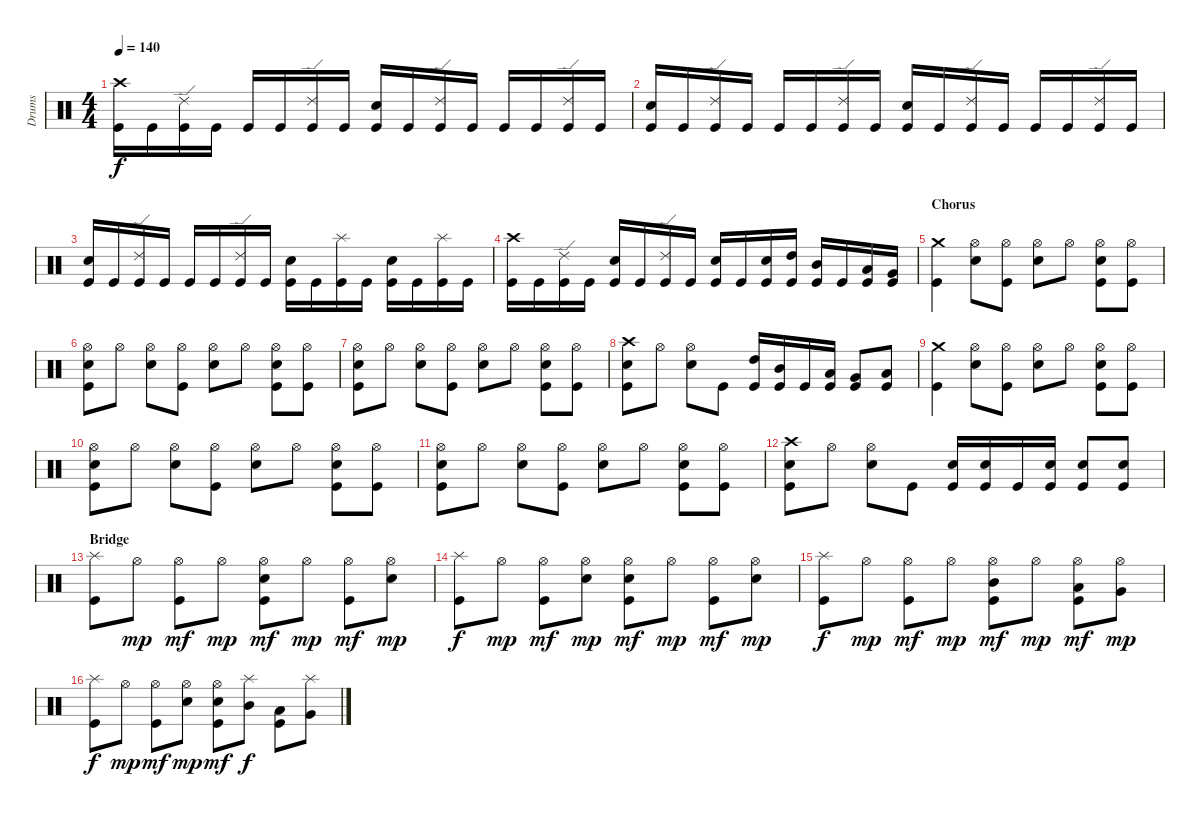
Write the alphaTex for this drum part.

\track ("Drums" "Drums") {instrument percussion}
\staff {score}
\articulation defaults
\ts (4 4)
\tempo 140
\clef neutral
\ks c
("Crash high (hit)" "Kick (hit)").16{dy f} "Kick (hit)".16 ("Ride (edge) 2" "Kick (hit)").16 "Kick (hit)".16 "Kick (hit)".16 "Kick (hit)".16 ("Ride (edge) 2" "Kick (hit)").16 "Kick (hit)".16 ("Snare (hit) 2" "Kick (hit)").16 "Kick (hit)".16 ("Ride (edge) 2" "Kick (hit)").16 "Kick (hit)".16 "Kick (hit)".16 "Kick (hit)".16 ("Ride (edge) 2" "Kick (hit)").16 "Kick (hit)".16 |
("Snare (hit) 2" "Kick (hit)").16 "Kick (hit)".16 ("Ride (edge) 2" "Kick (hit)").16 "Kick (hit)".16 "Kick (hit)".16 "Kick (hit)".16 ("Ride (edge) 2" "Kick (hit)").16 "Kick (hit)".16 ("Snare (hit) 2" "Kick (hit)").16 "Kick (hit)".16 ("Ride (edge) 2" "Kick (hit)").16 "Kick (hit)".16 "Kick (hit)".16 "Kick (hit)".16 ("Ride (edge) 2" "Kick (hit)").16 "Kick (hit)".16 |
("Snare (hit) 2" "Kick (hit)").16 "Kick (hit)".16 ("Ride (edge) 2" "Kick (hit)").16 "Kick (hit)".16 "Kick (hit)".16 "Kick (hit)".16 ("Ride (edge) 2" "Kick (hit)").16 "Kick (hit)".16 ("Snare (hit) 2" "Kick (hit)").16 "Kick (hit)".16 ("Splash (hit)" "Kick (hit)").16 "Kick (hit)".16 ("Snare (hit) 2" "Kick (hit)").16 "Kick (hit)".16 ("Splash (hit)" "Kick (hit)").16 "Kick (hit)".16 |
("Crash high (hit)" "Kick (hit)").16 "Kick (hit)".16 ("Ride (edge) 2" "Kick (hit)").16 "Kick (hit)".16 ("Snare (hit) 2" "Kick (hit)").16 "Kick (hit)".16 ("Ride (edge) 2" "Kick (hit)").16 "Kick (hit)".16 ("Snare (hit) 2" "Kick (hit)").16 "Kick (hit)".16 ("Snare (hit) 2" "Kick (hit)").16 ("High Tom (hit)" "Kick (hit)").16 ("Mid Tom (hit)" "Kick (hit)").16 "Kick (hit)".16 ("Low Tom (hit)" "Kick (hit)").16 ("Very Low Tom (hit)" "Kick (hit)").16 |
\section ("" "Chorus")
("Crash medium (hit)" "Kick (hit)").4 ("Hi-Hat (open)" "Electric Snare (hit)").8 ("Hi-Hat (open)" "Kick (hit)").8 ("Hi-Hat (open)" "Electric Snare (hit)").8 "Hi-Hat (open)".8 ("Hi-Hat (open)" "Electric Snare (hit)" "Kick (hit)").8 ("Hi-Hat (open)" "Kick (hit)").8 |
("Hi-Hat (open)" "Electric Snare (hit)" "Kick (hit)").8 "Hi-Hat (open)".8 ("Hi-Hat (open)" "Electric Snare (hit)").8 ("Hi-Hat (open)" "Kick (hit)").8 ("Hi-Hat (open)" "Electric Snare (hit)").8 "Hi-Hat (open)".8 ("Hi-Hat (open)" "Electric Snare (hit)" "Kick (hit)").8 ("Hi-Hat (open)" "Kick (hit)").8 |
("Hi-Hat (open)" "Electric Snare (hit)" "Kick (hit)").8 "Hi-Hat (open)".8 ("Hi-Hat (open)" "Electric Snare (hit)").8 ("Hi-Hat (open)" "Kick (hit)").8 ("Hi-Hat (open)" "Electric Snare (hit)").8 "Hi-Hat (open)".8 ("Hi-Hat (open)" "Electric Snare (hit)" "Kick (hit)").8 ("Hi-Hat (open)" "Kick (hit)").8 |
("Crash high (hit)" "Electric Snare (hit)" "Kick (hit)").8 "Hi-Hat (open)".8 ("Hi-Hat (open)" "Electric Snare (hit)").8 "Kick (hit)".8 ("High Tom (hit)" "Kick (hit)").16 ("Mid Tom (hit)" "Kick (hit)").16 "Kick (hit)".16 ("Low Tom (hit)" "Kick (hit)").16 ("Very Low Tom (hit)" "Kick (hit)").8 ("Low Floor Tom (hit)" "Kick (hit)").8 |
("Crash medium (hit)" "Kick (hit)").4 ("Hi-Hat (open)" "Electric Snare (hit)").8 ("Hi-Hat (open)" "Kick (hit)").8 ("Hi-Hat (open)" "Electric Snare (hit)").8 "Hi-Hat (open)".8 ("Hi-Hat (open)" "Electric Snare (hit)" "Kick (hit)").8 ("Hi-Hat (open)" "Kick (hit)").8 |
("Hi-Hat (open)" "Electric Snare (hit)" "Kick (hit)").8 "Hi-Hat (open)".8 ("Hi-Hat (open)" "Electric Snare (hit)").8 ("Hi-Hat (open)" "Kick (hit)").8 ("Hi-Hat (open)" "Electric Snare (hit)").8 "Hi-Hat (open)".8 ("Hi-Hat (open)" "Electric Snare (hit)" "Kick (hit)").8 ("Hi-Hat (open)" "Kick (hit)").8 |
("Hi-Hat (open)" "Electric Snare (hit)" "Kick (hit)").8 "Hi-Hat (open)".8 ("Hi-Hat (open)" "Electric Snare (hit)").8 ("Hi-Hat (open)" "Kick (hit)").8 ("Hi-Hat (open)" "Electric Snare (hit)").8 "Hi-Hat (open)".8 ("Hi-Hat (open)" "Electric Snare (hit)" "Kick (hit)").8 ("Hi-Hat (open)" "Kick (hit)").8 |
("Crash high (hit)" "Electric Snare (hit)" "Kick (hit)").8 "Hi-Hat (open)".8 ("Hi-Hat (open)" "Electric Snare (hit)").8 "Kick (hit)".8 ("Electric Snare (hit)" "Kick (hit)").16 ("Electric Snare (hit)" "Kick (hit)").16 "Kick (hit)".16 ("Electric Snare (hit)" "Kick (hit)").16 ("Electric Snare (hit)" "Kick (hit)").8 ("Electric Snare (hit)" "Kick (hit)").8 |
\section ("" "Bridge")
("Splash (hit)" "Kick (hit)").8 "Hi-Hat (open)".8{dy mp} ("Hi-Hat (open)" "Kick (hit)").8{dy mf} "Hi-Hat (open)".8{dy mp} ("Hi-Hat (open)" "Electric Snare (hit)" "Kick (hit)").8{dy mf} "Hi-Hat (open)".8{dy mp} ("Hi-Hat (open)" "Kick (hit)").8{dy mf} ("Hi-Hat (open)" "Snare (hit) 2").8{dy mp} |
("Splash (hit)" "Kick (hit)").8{dy f} "Hi-Hat (open)".8{dy mp} ("Hi-Hat (open)" "Kick (hit)").8{dy mf} ("Hi-Hat (open)" "Snare (hit) 2").8{dy mp} ("Hi-Hat (open)" "Electric Snare (hit)" "Kick (hit)").8{dy mf} "Hi-Hat (open)".8{dy mp} ("Hi-Hat (open)" "Kick (hit)").8{dy mf} ("Hi-Hat (open)" "Snare (hit) 2").8{dy mp} |
("Splash (hit)" "Kick (hit)").8{dy f} "Hi-Hat (open)".8{dy mp} ("Hi-Hat (open)" "Kick (hit)").8{dy mf} "Hi-Hat (open)".8{dy mp} ("Hi-Hat (open)" "Mid Tom (hit)" "Kick (hit)").8{dy mf} "Hi-Hat (open)".8{dy mp} ("Hi-Hat (open)" "Low Tom (hit)" "Kick (hit)").8{dy mf} ("Hi-Hat (open)" "Very Low Tom (hit)").8{dy mp} |
("Splash (hit)" "Kick (hit)").8{dy f} "Hi-Hat (open)".8{dy mp} ("Hi-Hat (open)" "Kick (hit)").8{dy mf} ("Hi-Hat (open)" "Snare (hit) 2").8{dy mp} ("Hi-Hat (open)" "Electric Snare (hit)" "Kick (hit)").8{dy mf} ("Splash (hit)" "Mid Tom (hit)").8{dy f} ("Low Tom (hit)" "Kick (hit)").8 ("Splash (hit)" "Very Low Tom (hit)").8
